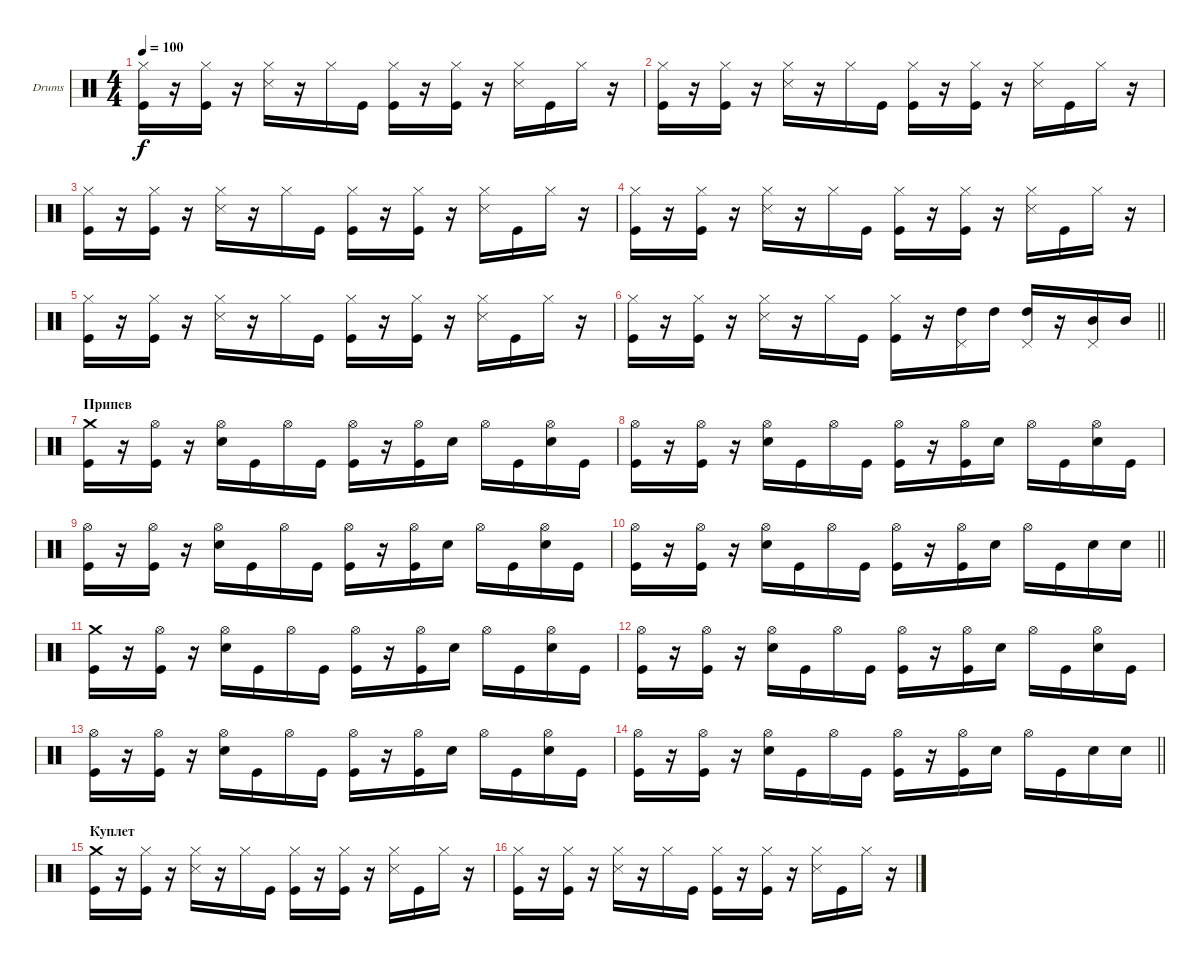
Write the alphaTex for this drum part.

\bracketExtendMode groupsimilarinstruments
\firstSystemTrackNameOrientation horizontal
\otherSystemsTrackNameOrientation horizontal
\track ("Drumkit" "Drums") {instrument percussion}
\staff {score}
\articulation defaults
\ts (4 4)
\tempo 100
\clef neutral
\ks c
("Hi-Hat (closed)" "Kick (hit)").16{dy f} r.16 ("Hi-Hat (closed)" "Kick (hit)").16 r.16 ("Hi-Hat (closed)" "Snare (side stick) 3").16 r.16 "Hi-Hat (closed)".16 "Kick (hit)".16 ("Hi-Hat (closed)" "Kick (hit)").16 r.16 ("Hi-Hat (closed)" "Kick (hit)").16 r.16 ("Hi-Hat (closed)" "Snare (side stick) 3").16 "Kick (hit)".16 "Hi-Hat (closed)".16 r.16 |
("Hi-Hat (closed)" "Kick (hit)").16 r.16 ("Hi-Hat (closed)" "Kick (hit)").16 r.16 ("Hi-Hat (closed)" "Snare (side stick) 3").16 r.16 "Hi-Hat (closed)".16 "Kick (hit)".16 ("Hi-Hat (closed)" "Kick (hit)").16 r.16 ("Hi-Hat (closed)" "Kick (hit)").16 r.16 ("Hi-Hat (closed)" "Snare (side stick) 3").16 "Kick (hit)".16 "Hi-Hat (closed)".16 r.16 |
("Hi-Hat (closed)" "Kick (hit)").16 r.16 ("Hi-Hat (closed)" "Kick (hit)").16 r.16 ("Hi-Hat (closed)" "Snare (side stick) 3").16 r.16 "Hi-Hat (closed)".16 "Kick (hit)".16 ("Hi-Hat (closed)" "Kick (hit)").16 r.16 ("Hi-Hat (closed)" "Kick (hit)").16 r.16 ("Hi-Hat (closed)" "Snare (side stick) 3").16 "Kick (hit)".16 "Hi-Hat (closed)".16 r.16 |
("Hi-Hat (closed)" "Kick (hit)").16 r.16 ("Hi-Hat (closed)" "Kick (hit)").16 r.16 ("Hi-Hat (closed)" "Snare (side stick) 3").16 r.16 "Hi-Hat (closed)".16 "Kick (hit)".16 ("Hi-Hat (closed)" "Kick (hit)").16 r.16 ("Hi-Hat (closed)" "Kick (hit)").16 r.16 ("Hi-Hat (closed)" "Snare (side stick) 3").16 "Kick (hit)".16 "Hi-Hat (closed)".16 r.16 |
("Hi-Hat (closed)" "Kick (hit)").16 r.16 ("Hi-Hat (closed)" "Kick (hit)").16 r.16 ("Hi-Hat (closed)" "Snare (side stick) 3").16 r.16 "Hi-Hat (closed)".16 "Kick (hit)".16 ("Hi-Hat (closed)" "Kick (hit)").16 r.16 ("Hi-Hat (closed)" "Kick (hit)").16 r.16 ("Hi-Hat (closed)" "Snare (side stick) 3").16 "Kick (hit)".16 "Hi-Hat (closed)".16 r.16 |
\barLineRight lightlight
("Hi-Hat (closed)" "Kick (hit)").16 r.16 ("Hi-Hat (closed)" "Kick (hit)").16 r.16 ("Hi-Hat (closed)" "Snare (side stick) 3").16 r.16 "Hi-Hat (closed)".16 "Kick (hit)".16 ("Hi-Hat (closed)" "Kick (hit)").16 r.16 ("Pedal Hi-Hat (hit)" "High Tom (hit)").16 "High Tom (hit)".16 ("Pedal Hi-Hat (hit)" "High Tom (hit)").16 r.16 ("Pedal Hi-Hat (hit)" "Mid Tom (hit)").16 "Mid Tom (hit)".16 |
\section ("" "Припев")
("Crash medium (hit)" "Kick (hit)").16 r.16 ("Hi-Hat (open)" "Kick (hit)").16 r.16 ("Hi-Hat (open)" "Snare (hit) 2").16 "Kick (hit)".16 "Hi-Hat (open)".16 "Kick (hit)".16 ("Hi-Hat (open)" "Kick (hit)").16 r.16 ("Hi-Hat (open)" "Kick (hit)").16 "Snare (hit) 2".16 "Hi-Hat (open)".16 "Kick (hit)".16 ("Hi-Hat (open)" "Snare (hit) 2").16 "Kick (hit)".16 |
("Hi-Hat (open)" "Kick (hit)").16 r.16 ("Hi-Hat (open)" "Kick (hit)").16 r.16 ("Hi-Hat (open)" "Snare (hit) 2").16 "Kick (hit)".16 "Hi-Hat (open)".16 "Kick (hit)".16 ("Hi-Hat (open)" "Kick (hit)").16 r.16 ("Hi-Hat (open)" "Kick (hit)").16 "Snare (hit) 2".16 "Hi-Hat (open)".16 "Kick (hit)".16 ("Hi-Hat (open)" "Snare (hit) 2").16 "Kick (hit)".16 |
("Hi-Hat (open)" "Kick (hit)").16 r.16 ("Hi-Hat (open)" "Kick (hit)").16 r.16 ("Hi-Hat (open)" "Snare (hit) 2").16 "Kick (hit)".16 "Hi-Hat (open)".16 "Kick (hit)".16 ("Hi-Hat (open)" "Kick (hit)").16 r.16 ("Hi-Hat (open)" "Kick (hit)").16 "Snare (hit) 2".16 "Hi-Hat (open)".16 "Kick (hit)".16 ("Hi-Hat (open)" "Snare (hit) 2").16 "Kick (hit)".16 |
\barLineRight lightlight
("Hi-Hat (open)" "Kick (hit)").16 r.16 ("Hi-Hat (open)" "Kick (hit)").16 r.16 ("Hi-Hat (open)" "Snare (hit) 2").16 "Kick (hit)".16 "Hi-Hat (open)".16 "Kick (hit)".16 ("Hi-Hat (open)" "Kick (hit)").16 r.16 ("Hi-Hat (open)" "Kick (hit)").16 "Snare (hit) 2".16 "Hi-Hat (open)".16 "Kick (hit)".16 "Snare (hit) 2".16 "Snare (hit) 2".16 |
("Crash medium (hit)" "Kick (hit)").16 r.16 ("Hi-Hat (open)" "Kick (hit)").16 r.16 ("Hi-Hat (open)" "Snare (hit) 2").16 "Kick (hit)".16 "Hi-Hat (open)".16 "Kick (hit)".16 ("Hi-Hat (open)" "Kick (hit)").16 r.16 ("Hi-Hat (open)" "Kick (hit)").16 "Snare (hit) 2".16 "Hi-Hat (open)".16 "Kick (hit)".16 ("Hi-Hat (open)" "Snare (hit) 2").16 "Kick (hit)".16 |
("Hi-Hat (open)" "Kick (hit)").16 r.16 ("Hi-Hat (open)" "Kick (hit)").16 r.16 ("Hi-Hat (open)" "Snare (hit) 2").16 "Kick (hit)".16 "Hi-Hat (open)".16 "Kick (hit)".16 ("Hi-Hat (open)" "Kick (hit)").16 r.16 ("Hi-Hat (open)" "Kick (hit)").16 "Snare (hit) 2".16 "Hi-Hat (open)".16 "Kick (hit)".16 ("Hi-Hat (open)" "Snare (hit) 2").16 "Kick (hit)".16 |
("Hi-Hat (open)" "Kick (hit)").16 r.16 ("Hi-Hat (open)" "Kick (hit)").16 r.16 ("Hi-Hat (open)" "Snare (hit) 2").16 "Kick (hit)".16 "Hi-Hat (open)".16 "Kick (hit)".16 ("Hi-Hat (open)" "Kick (hit)").16 r.16 ("Hi-Hat (open)" "Kick (hit)").16 "Snare (hit) 2".16 "Hi-Hat (open)".16 "Kick (hit)".16 ("Hi-Hat (open)" "Snare (hit) 2").16 "Kick (hit)".16 |
\barLineRight lightlight
("Hi-Hat (open)" "Kick (hit)").16 r.16 ("Hi-Hat (open)" "Kick (hit)").16 r.16 ("Hi-Hat (open)" "Snare (hit) 2").16 "Kick (hit)".16 "Hi-Hat (open)".16 "Kick (hit)".16 ("Hi-Hat (open)" "Kick (hit)").16 r.16 ("Hi-Hat (open)" "Kick (hit)").16 "Snare (hit) 2".16 "Hi-Hat (open)".16 "Kick (hit)".16 "Snare (hit) 2".16 "Snare (hit) 2".16 |
\section ("" "Куплет")
("Crash medium (hit)" "Kick (hit)").16 r.16 ("Hi-Hat (closed)" "Kick (hit)").16 r.16 ("Hi-Hat (closed)" "Snare (side stick) 3").16 r.16 "Hi-Hat (closed)".16 "Kick (hit)".16 ("Hi-Hat (closed)" "Kick (hit)").16 r.16 ("Hi-Hat (closed)" "Kick (hit)").16 r.16 ("Hi-Hat (closed)" "Snare (side stick) 3").16 "Kick (hit)".16 "Hi-Hat (closed)".16 r.16 |
("Hi-Hat (closed)" "Kick (hit)").16 r.16 ("Hi-Hat (closed)" "Kick (hit)").16 r.16 ("Hi-Hat (closed)" "Snare (side stick) 3").16 r.16 "Hi-Hat (closed)".16 "Kick (hit)".16 ("Hi-Hat (closed)" "Kick (hit)").16 r.16 ("Hi-Hat (closed)" "Kick (hit)").16 r.16 ("Hi-Hat (closed)" "Snare (side stick) 3").16 "Kick (hit)".16 "Hi-Hat (closed)".16 r.16
